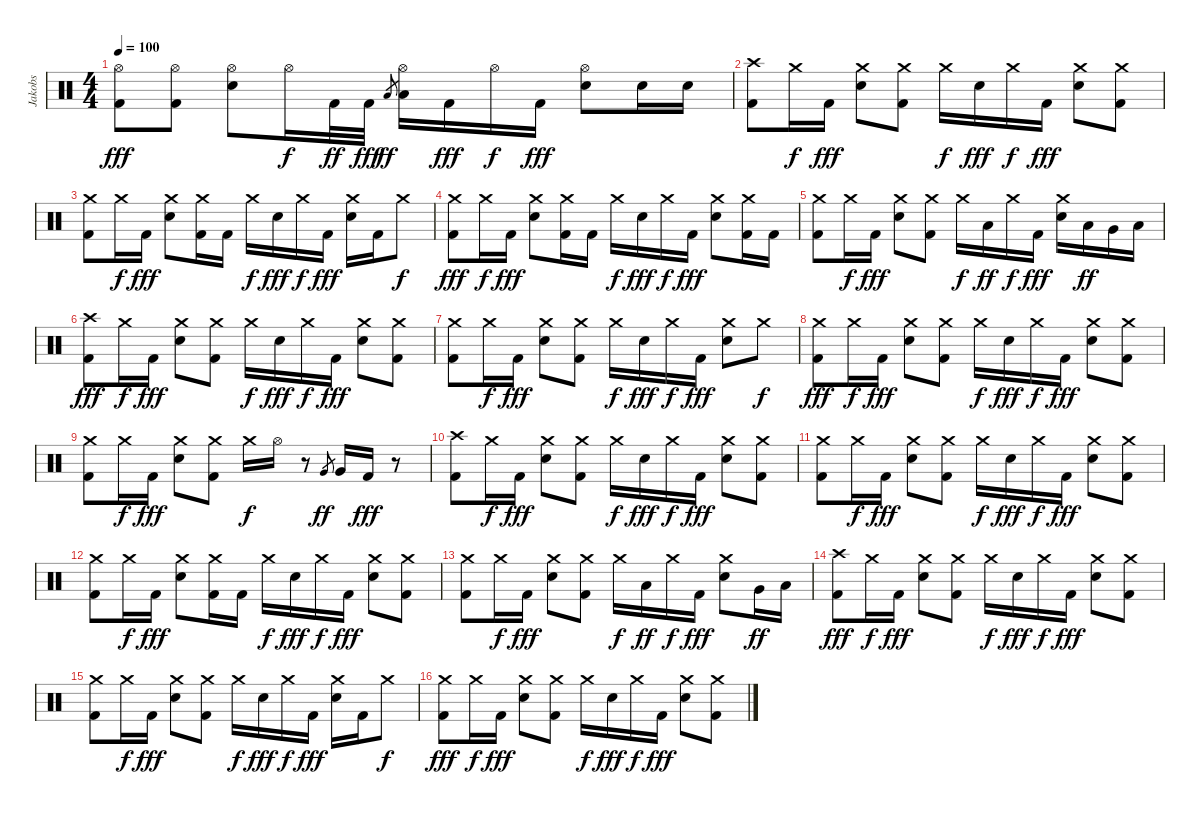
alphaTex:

\track ("Jakobs" "Jakobs") {instrument percussion}
\staff {score}
\articulation defaults
\ts (4 4)
\tempo 100
\clef neutral
\ks c
("Hi-Hat (open)" "Kick (hit) 2").8{dy fff} ("Hi-Hat (open)" "Kick (hit) 2").8 ("Hi-Hat (open)" "Snare (hit) 2").8 "Hi-Hat (open)".16{dy f} "Kick (hit) 2".32{dy ff} "Kick (hit) 2".32{dy fff} "Low Tom (hit)".8{gr dy ff} ("Hi-Hat (open)" "Low Tom (hit)").16 "Kick (hit) 2".16{dy fff} "Hi-Hat (open)".16{dy f} "Kick (hit) 2".16{dy fff} ("Hi-Hat (open)" "Snare (hit) 2").8 "Snare (hit) 2".16 "Snare (hit) 2".16 |
("Crash high (hit)" "Kick (hit) 2").8 "Crash medium (hit)".16{dy f} "Kick (hit) 2".16{dy fff} ("Crash medium (hit)" "Snare (hit) 2").8 ("Crash medium (hit)" "Kick (hit) 2").8 "Crash medium (hit)".16{dy f} "Snare (hit) 2".16{dy fff} "Crash medium (hit)".16{dy f} "Kick (hit) 2".16{dy fff} ("Crash medium (hit)" "Snare (hit) 2").8 ("Crash medium (hit)" "Kick (hit) 2").8 |
("Crash medium (hit)" "Kick (hit) 2").8 "Crash medium (hit)".16{dy f} "Kick (hit) 2".16{dy fff} ("Crash medium (hit)" "Snare (hit) 2").8 ("Crash medium (hit)" "Kick (hit) 2").16 "Kick (hit) 2".16 "Crash medium (hit)".16{dy f} "Snare (hit) 2".16{dy fff} "Crash medium (hit)".16{dy f} "Kick (hit) 2".16{dy fff} ("Crash medium (hit)" "Snare (hit) 2").16 "Kick (hit) 2".16 "Crash medium (hit)".8{dy f} |
("Crash medium (hit)" "Kick (hit) 2").8{dy fff} "Crash medium (hit)".16{dy f} "Kick (hit) 2".16{dy fff} ("Crash medium (hit)" "Snare (hit) 2").8 ("Crash medium (hit)" "Kick (hit) 2").16 "Kick (hit) 2".16 "Crash medium (hit)".16{dy f} "Snare (hit) 2".16{dy fff} "Crash medium (hit)".16{dy f} "Kick (hit) 2".16{dy fff} ("Crash medium (hit)" "Snare (hit) 2").8 ("Crash medium (hit)" "Kick (hit) 2").16 "Kick (hit) 2".16 |
("Crash medium (hit)" "Kick (hit) 2").8 "Crash medium (hit)".16{dy f} "Kick (hit) 2".16{dy fff} ("Crash medium (hit)" "Snare (hit) 2").8 ("Crash medium (hit)" "Kick (hit) 2").8 "Crash medium (hit)".16{dy f} "Low Tom (hit)".16{dy ff} "Crash medium (hit)".16{dy f} "Kick (hit) 2".16{dy fff} ("Crash medium (hit)" "Snare (hit) 2").16 "Low Tom (hit)".16{dy ff} "Very Low Tom (hit)".16 "Low Floor Tom (hit)".16 |
("Crash high (hit)" "Kick (hit) 2").8{dy fff} "Crash medium (hit)".16{dy f} "Kick (hit) 2".16{dy fff} ("Crash medium (hit)" "Snare (hit) 2").8 ("Crash medium (hit)" "Kick (hit) 2").8 "Crash medium (hit)".16{dy f} "Snare (hit) 2".16{dy fff} "Crash medium (hit)".16{dy f} "Kick (hit) 2".16{dy fff} ("Crash medium (hit)" "Snare (hit) 2").8 ("Crash medium (hit)" "Kick (hit) 2").8 |
("Crash medium (hit)" "Kick (hit) 2").8 "Crash medium (hit)".16{dy f} "Kick (hit) 2".16{dy fff} ("Crash medium (hit)" "Snare (hit) 2").8 ("Crash medium (hit)" "Kick (hit) 2").8 "Crash medium (hit)".16{dy f} "Snare (hit) 2".16{dy fff} "Crash medium (hit)".16{dy f} "Kick (hit) 2".16{dy fff} ("Crash medium (hit)" "Snare (hit) 2").8 "Crash medium (hit)".8{dy f} |
("Crash medium (hit)" "Kick (hit) 2").8{dy fff} "Crash medium (hit)".16{dy f} "Kick (hit) 2".16{dy fff} ("Crash medium (hit)" "Snare (hit) 2").8 ("Crash medium (hit)" "Kick (hit) 2").8 "Crash medium (hit)".16{dy f} "Snare (hit) 2".16{dy fff} "Crash medium (hit)".16{dy f} "Kick (hit) 2".16{dy fff} ("Crash medium (hit)" "Snare (hit) 2").8 ("Crash medium (hit)" "Kick (hit) 2").8 |
("Crash medium (hit)" "Kick (hit) 2").8 "Crash medium (hit)".16{dy f} "Kick (hit) 2".16{dy fff} ("Crash medium (hit)" "Snare (hit) 2").8 ("Crash medium (hit)" "Kick (hit) 2").8 "Crash medium (hit)".16{dy f} "Hi-Hat (open)".16 r.8 "Very Low Tom (hit)".8{gr dy ff} "Very Low Tom (hit)".16 "Kick (hit) 2".16{dy fff} r.8 |
("Crash high (hit)" "Kick (hit) 2").8 "Crash medium (hit)".16{dy f} "Kick (hit) 2".16{dy fff} ("Crash medium (hit)" "Snare (hit) 2").8 ("Crash medium (hit)" "Kick (hit) 2").8 "Crash medium (hit)".16{dy f} "Snare (hit) 2".16{dy fff} "Crash medium (hit)".16{dy f} "Kick (hit) 2".16{dy fff} ("Crash medium (hit)" "Snare (hit) 2").8 ("Crash medium (hit)" "Kick (hit) 2").8 |
("Crash medium (hit)" "Kick (hit) 2").8 "Crash medium (hit)".16{dy f} "Kick (hit) 2".16{dy fff} ("Crash medium (hit)" "Snare (hit) 2").8 ("Crash medium (hit)" "Kick (hit) 2").8 "Crash medium (hit)".16{dy f} "Snare (hit) 2".16{dy fff} "Crash medium (hit)".16{dy f} "Kick (hit) 2".16{dy fff} ("Crash medium (hit)" "Snare (hit) 2").8 ("Crash medium (hit)" "Kick (hit) 2").8 |
("Crash medium (hit)" "Kick (hit) 2").8 "Crash medium (hit)".16{dy f} "Kick (hit) 2".16{dy fff} ("Crash medium (hit)" "Snare (hit) 2").8 ("Crash medium (hit)" "Kick (hit) 2").16 "Kick (hit) 2".16 "Crash medium (hit)".16{dy f} "Snare (hit) 2".16{dy fff} "Crash medium (hit)".16{dy f} "Kick (hit) 2".16{dy fff} ("Crash medium (hit)" "Snare (hit) 2").8 ("Crash medium (hit)" "Kick (hit) 2").8 |
("Crash medium (hit)" "Kick (hit) 2").8 "Crash medium (hit)".16{dy f} "Kick (hit) 2".16{dy fff} ("Crash medium (hit)" "Snare (hit) 2").8 ("Crash medium (hit)" "Kick (hit) 2").8 "Crash medium (hit)".16{dy f} "Low Tom (hit)".16{dy ff} "Crash medium (hit)".16{dy f} "Kick (hit) 2".16{dy fff} ("Crash medium (hit)" "Snare (hit) 2").8 "Very Low Tom (hit)".16{dy ff} "Low Floor Tom (hit)".16 |
("Crash high (hit)" "Kick (hit) 2").8{dy fff} "Crash medium (hit)".16{dy f} "Kick (hit) 2".16{dy fff} ("Crash medium (hit)" "Snare (hit) 2").8 ("Crash medium (hit)" "Kick (hit) 2").8 "Crash medium (hit)".16{dy f} "Snare (hit) 2".16{dy fff} "Crash medium (hit)".16{dy f} "Kick (hit) 2".16{dy fff} ("Crash medium (hit)" "Snare (hit) 2").8 ("Crash medium (hit)" "Kick (hit) 2").8 |
("Crash medium (hit)" "Kick (hit) 2").8 "Crash medium (hit)".16{dy f} "Kick (hit) 2".16{dy fff} ("Crash medium (hit)" "Snare (hit) 2").8 ("Crash medium (hit)" "Kick (hit) 2").8 "Crash medium (hit)".16{dy f} "Snare (hit) 2".16{dy fff} "Crash medium (hit)".16{dy f} "Kick (hit) 2".16{dy fff} ("Crash medium (hit)" "Snare (hit) 2").16 "Kick (hit) 2".16 "Crash medium (hit)".8{dy f} |
("Crash medium (hit)" "Kick (hit) 2").8{dy fff} "Crash medium (hit)".16{dy f} "Kick (hit) 2".16{dy fff} ("Crash medium (hit)" "Snare (hit) 2").8 ("Crash medium (hit)" "Kick (hit) 2").8 "Crash medium (hit)".16{dy f} "Snare (hit) 2".16{dy fff} "Crash medium (hit)".16{dy f} "Kick (hit) 2".16{dy fff} ("Crash medium (hit)" "Snare (hit) 2").8 ("Crash medium (hit)" "Kick (hit) 2").8
